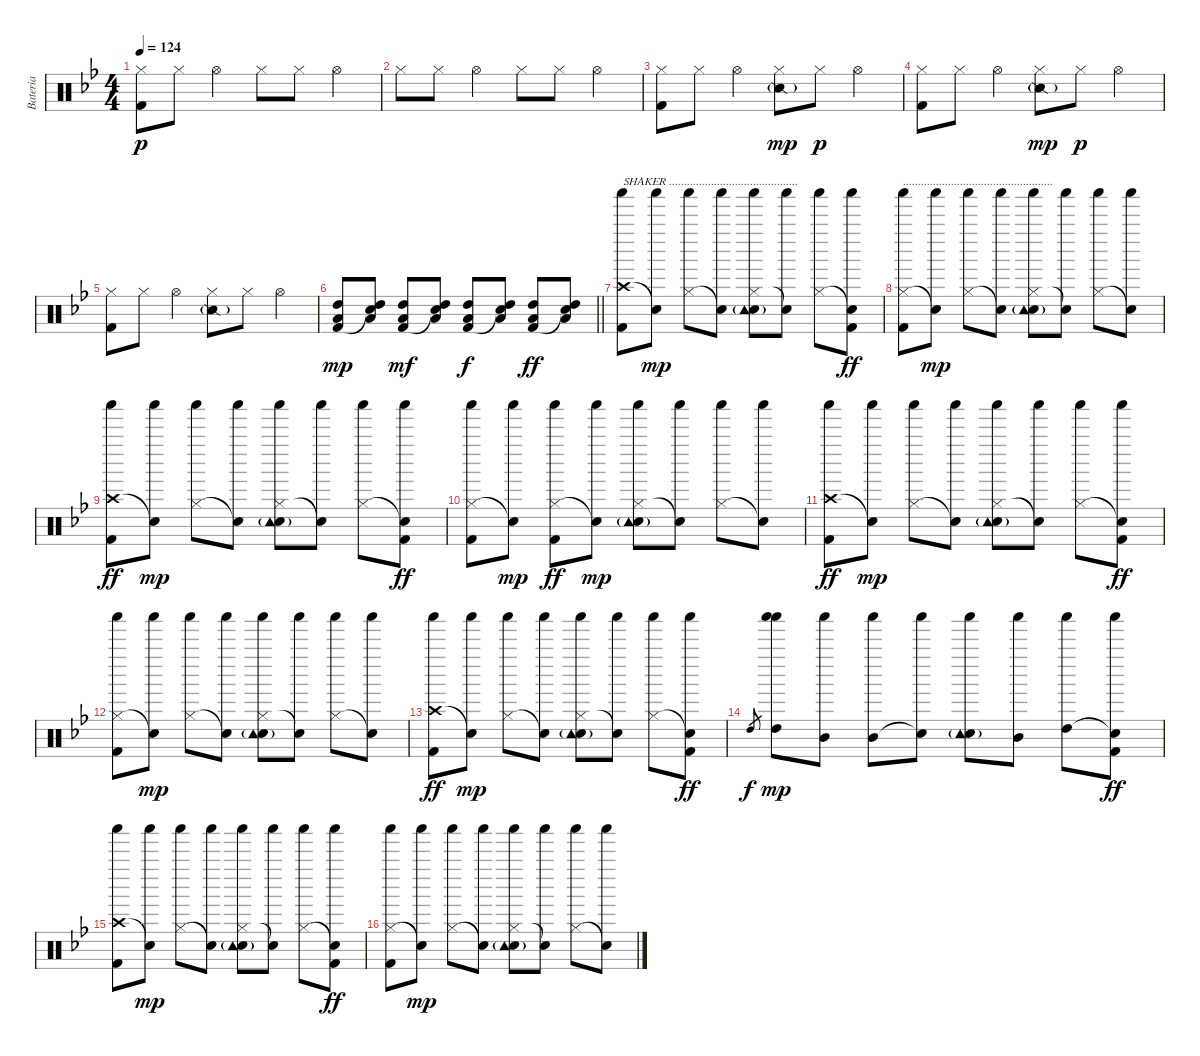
\track ("Bateria" "Bateria") {instrument percussion}
\staff {score}
\articulation defaults
\ts (4 4)
\tempo 124
\clef neutral
\ks bb
("Hi-Hat (closed)" "Kick (hit) 2").8{dy p} "Hi-Hat (closed)".8 "Hi-Hat (open)".4 "Hi-Hat (closed)".8 "Hi-Hat (closed)".8 "Hi-Hat (open)".4 |
"Hi-Hat (closed)".8 "Hi-Hat (closed)".8 "Hi-Hat (open)".4 "Hi-Hat (closed)".8 "Hi-Hat (closed)".8 "Hi-Hat (open)".4 |
("Hi-Hat (closed)" "Kick (hit) 2").8 "Hi-Hat (closed)".8 "Hi-Hat (open)".4 ("Hi-Hat (closed)" "Snare (side stick) 2"{g}).8{dy mp} "Hi-Hat (closed)".8{dy p} "Hi-Hat (open)".4 |
("Hi-Hat (closed)" "Kick (hit) 2").8 "Hi-Hat (closed)".8 "Hi-Hat (open)".4 ("Hi-Hat (closed)" "Snare (side stick) 2"{g}).8{dy mp} "Hi-Hat (closed)".8{dy p} "Hi-Hat (open)".4 |
("Hi-Hat (closed)" "Kick (hit) 2").8 "Hi-Hat (closed)".8 "Hi-Hat (open)".4 ("Hi-Hat (closed)" "Snare (side stick) 2"{g}).8 "Hi-Hat (closed)".8 "Hi-Hat (open)".4 |
\barLineRight lightlight
("High Tom (hit)" "Low Tom (hit)" "Kick (hit) 2").8{dy mp} ("High Tom (hit)" "Low Tom (hit)" "Snare (hit)"{t}).8 ("High Tom (hit)" "Low Tom (hit)" "Kick (hit) 2").8{dy mf} ("High Tom (hit)" "Low Tom (hit)" "Snare (hit)"{t}).8 ("High Tom (hit)" "Low Tom (hit)" "Kick (hit) 2").8{dy f} ("High Tom (hit)" "Low Tom (hit)" "Snare (hit)"{t}).8 ("High Tom (hit)" "Low Tom (hit)" "Kick (hit) 2").8{dy ff} ("High Tom (hit)" "Low Tom (hit)" "Snare (hit)"{t}).8 |
("Crash high (hit)" "Shaker (hit)" "Kick (hit) 2").8{txt "SHAKER ..........................................."} ("Snare (hit)"{t} "Shaker (hit)").8{dy mp} ("Hi-Hat (closed)" "Shaker (hit)").8 ("Snare (hit)"{t} "Shaker (hit)").8 ("Hi-Hat (closed)" "Electric Snare (hit)" "Shaker (hit)" "Tambourine (hit)"{g}).8 ("Snare (hit)"{t} "Shaker (hit)").8 ("Hi-Hat (closed)" "Shaker (hit)").8 ("Snare (hit)"{t} "Shaker (hit)" "Kick (hit) 2").8{dy ff} |
("Hi-Hat (closed)" "Shaker (hit)" "Kick (hit) 2").8{txt ".................................................."} ("Snare (hit)"{t} "Shaker (hit)").8{dy mp} ("Hi-Hat (closed)" "Shaker (hit)").8 ("Snare (hit)"{t} "Shaker (hit)").8 ("Hi-Hat (closed)" "Electric Snare (hit)" "Shaker (hit)" "Tambourine (hit)"{g}).8 ("Snare (hit)"{t} "Shaker (hit)").8 ("Hi-Hat (closed)" "Shaker (hit)").8 ("Snare (hit)"{t} "Shaker (hit)").8 |
("Crash high (hit)" "Shaker (hit)" "Kick (hit) 2").8{dy ff} ("Snare (hit)"{t} "Shaker (hit)").8{dy mp} ("Hi-Hat (closed)" "Shaker (hit)").8 ("Snare (hit)"{t} "Shaker (hit)").8 ("Hi-Hat (closed)" "Electric Snare (hit)" "Shaker (hit)" "Tambourine (hit)"{g}).8 ("Snare (hit)"{t} "Shaker (hit)").8 ("Hi-Hat (closed)" "Shaker (hit)").8 ("Snare (hit)"{t} "Shaker (hit)" "Kick (hit) 2").8{dy ff} |
("Hi-Hat (closed)" "Shaker (hit)" "Kick (hit) 2").8 ("Snare (hit)"{t} "Shaker (hit)").8{dy mp} ("Hi-Hat (closed)" "Shaker (hit)" "Kick (hit) 2").8{dy ff} ("Snare (hit)"{t} "Shaker (hit)").8{dy mp} ("Hi-Hat (closed)" "Electric Snare (hit)" "Shaker (hit)" "Tambourine (hit)"{g}).8 ("Snare (hit)"{t} "Shaker (hit)").8 ("Hi-Hat (closed)" "Shaker (hit)").8 ("Snare (hit)"{t} "Shaker (hit)").8 |
("Crash high (hit)" "Shaker (hit)" "Kick (hit) 2").8{dy ff} ("Snare (hit)"{t} "Shaker (hit)").8{dy mp} ("Hi-Hat (closed)" "Shaker (hit)").8 ("Snare (hit)"{t} "Shaker (hit)").8 ("Hi-Hat (closed)" "Electric Snare (hit)" "Shaker (hit)" "Tambourine (hit)"{g}).8 ("Snare (hit)"{t} "Shaker (hit)").8 ("Hi-Hat (closed)" "Shaker (hit)").8 ("Snare (hit)"{t} "Shaker (hit)" "Kick (hit) 2").8{dy ff} |
("Hi-Hat (closed)" "Shaker (hit)" "Kick (hit) 2").8 ("Snare (hit)"{t} "Shaker (hit)").8{dy mp} ("Hi-Hat (closed)" "Shaker (hit)").8 ("Snare (hit)"{t} "Shaker (hit)").8 ("Hi-Hat (closed)" "Electric Snare (hit)" "Shaker (hit)" "Tambourine (hit)"{g}).8 ("Snare (hit)"{t} "Shaker (hit)").8 ("Hi-Hat (closed)" "Shaker (hit)").8 ("Snare (hit)"{t} "Shaker (hit)").8 |
("Crash high (hit)" "Shaker (hit)" "Kick (hit) 2").8{dy ff} ("Snare (hit)"{t} "Shaker (hit)").8{dy mp} ("Hi-Hat (closed)" "Shaker (hit)").8 ("Snare (hit)"{t} "Shaker (hit)").8 ("Hi-Hat (closed)" "Electric Snare (hit)" "Shaker (hit)" "Tambourine (hit)"{g}).8 ("Snare (hit)"{t} "Shaker (hit)").8 ("Hi-Hat (closed)" "Shaker (hit)").8 ("Snare (hit)"{t} "Shaker (hit)" "Kick (hit) 2").8{dy ff} |
"High Tom (hit)".8{gr dy f} ("High Tom (hit)" "Shaker (hit)" "Shaker (hit)").8{dy mp} ("Mid Tom (hit)" "Shaker (hit)").8 ("Mid Tom (hit)" "Shaker (hit)").8 ("Snare (hit)"{t} "Shaker (hit)").8 ("Electric Snare (hit)" "Shaker (hit)" "Tambourine (hit)"{g}).8 ("Mid Tom (hit)" "Shaker (hit)").8 ("High Tom (hit)" "Shaker (hit)").8 ("Snare (hit)"{t} "Shaker (hit)" "Kick (hit) 2").8{dy ff} |
("Crash high (hit)" "Shaker (hit)" "Kick (hit) 2").8 ("Snare (hit)"{t} "Shaker (hit)").8{dy mp} ("Hi-Hat (closed)" "Shaker (hit)").8 ("Snare (hit)"{t} "Shaker (hit)").8 ("Hi-Hat (closed)" "Electric Snare (hit)" "Shaker (hit)" "Tambourine (hit)"{g}).8 ("Snare (hit)"{t} "Shaker (hit)").8 ("Hi-Hat (closed)" "Shaker (hit)").8 ("Snare (hit)"{t} "Shaker (hit)" "Kick (hit) 2").8{dy ff} |
("Hi-Hat (closed)" "Shaker (hit)" "Kick (hit) 2").8 ("Snare (hit)"{t} "Shaker (hit)").8{dy mp} ("Hi-Hat (closed)" "Shaker (hit)").8 ("Snare (hit)"{t} "Shaker (hit)").8 ("Hi-Hat (closed)" "Electric Snare (hit)" "Shaker (hit)" "Tambourine (hit)"{g}).8 ("Snare (hit)"{t} "Shaker (hit)").8 ("Hi-Hat (closed)" "Shaker (hit)").8 ("Snare (hit)"{t} "Shaker (hit)").8
